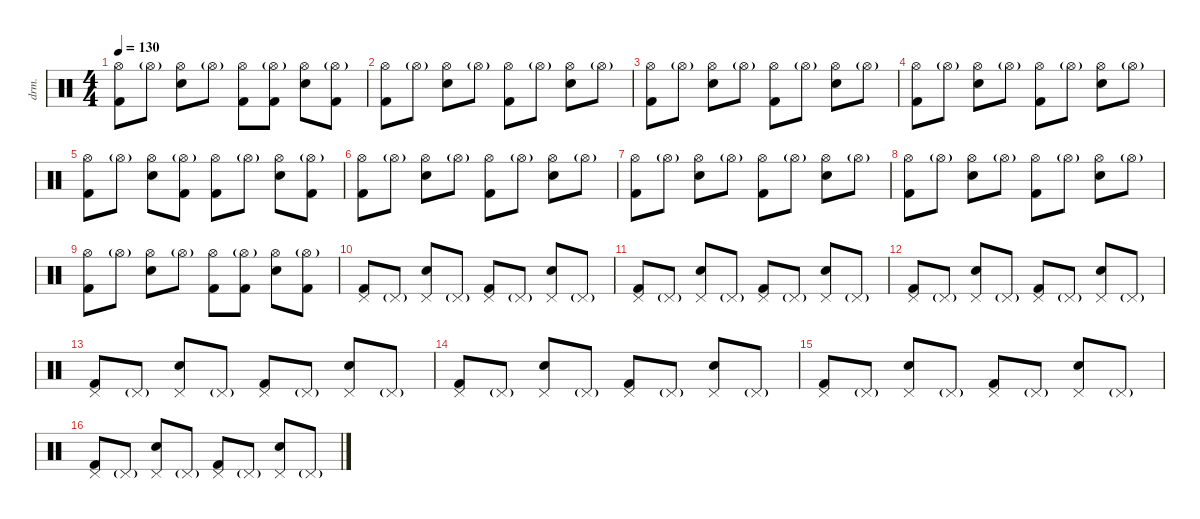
\defaultSystemsLayout 4
\hideDynamics
\bracketExtendMode nobrackets
\otherSystemsTrackNameOrientation horizontal
\track ("Percussion" "drm.") {instrument percussion}
\staff {score}
\articulation defaults
\ts (4 4)
\tempo 130
\clef neutral
\ks c
("Hi-Hat (open)" "Kick (hit) 2").8{dy f} "Hi-Hat (open)"{g}.8 ("Hi-Hat (open)" "Snare (hit) 2").8 "Hi-Hat (open)"{g}.8 ("Hi-Hat (open)" "Kick (hit) 2").8 ("Hi-Hat (open)"{g} "Kick (hit) 2").8 ("Hi-Hat (open)" "Snare (hit) 2").8 ("Hi-Hat (open)"{g} "Kick (hit) 2").8 |
("Hi-Hat (open)" "Kick (hit) 2").8 "Hi-Hat (open)"{g}.8 ("Hi-Hat (open)" "Snare (hit) 2").8 "Hi-Hat (open)"{g}.8 ("Hi-Hat (open)" "Kick (hit) 2").8 "Hi-Hat (open)"{g}.8 ("Hi-Hat (open)" "Snare (hit) 2").8 "Hi-Hat (open)"{g}.8 |
("Hi-Hat (open)" "Kick (hit) 2").8 "Hi-Hat (open)"{g}.8 ("Hi-Hat (open)" "Snare (hit) 2").8 "Hi-Hat (open)"{g}.8 ("Hi-Hat (open)" "Kick (hit) 2").8 "Hi-Hat (open)"{g}.8 ("Hi-Hat (open)" "Snare (hit) 2").8 "Hi-Hat (open)"{g}.8 |
("Hi-Hat (open)" "Kick (hit) 2").8 "Hi-Hat (open)"{g}.8 ("Hi-Hat (open)" "Snare (hit) 2").8 "Hi-Hat (open)"{g}.8 ("Hi-Hat (open)" "Kick (hit) 2").8 "Hi-Hat (open)"{g}.8 ("Hi-Hat (open)" "Snare (hit) 2").8 "Hi-Hat (open)"{g}.8 |
("Hi-Hat (open)" "Kick (hit) 2").8 "Hi-Hat (open)"{g}.8 ("Hi-Hat (open)" "Snare (hit) 2").8 ("Hi-Hat (open)"{g} "Kick (hit) 2").8 ("Hi-Hat (open)" "Kick (hit) 2").8 "Hi-Hat (open)"{g}.8 ("Hi-Hat (open)" "Snare (hit) 2").8 ("Hi-Hat (open)"{g} "Kick (hit) 2").8 |
("Hi-Hat (open)" "Kick (hit) 2").8 "Hi-Hat (open)"{g}.8 ("Hi-Hat (open)" "Snare (hit) 2").8 "Hi-Hat (open)"{g}.8 ("Hi-Hat (open)" "Kick (hit) 2").8 "Hi-Hat (open)"{g}.8 ("Hi-Hat (open)" "Snare (hit) 2").8 "Hi-Hat (open)"{g}.8 |
("Hi-Hat (open)" "Kick (hit) 2").8 "Hi-Hat (open)"{g}.8 ("Hi-Hat (open)" "Snare (hit) 2").8 "Hi-Hat (open)"{g}.8 ("Hi-Hat (open)" "Kick (hit) 2").8 "Hi-Hat (open)"{g}.8 ("Hi-Hat (open)" "Snare (hit) 2").8 "Hi-Hat (open)"{g}.8 |
("Hi-Hat (open)" "Kick (hit) 2").8 "Hi-Hat (open)"{g}.8 ("Hi-Hat (open)" "Snare (hit) 2").8 "Hi-Hat (open)"{g}.8 ("Hi-Hat (open)" "Kick (hit) 2").8 "Hi-Hat (open)"{g}.8 ("Hi-Hat (open)" "Snare (hit) 2").8 "Hi-Hat (open)"{g}.8 |
("Hi-Hat (open)" "Kick (hit) 2").8 "Hi-Hat (open)"{g}.8 ("Hi-Hat (open)" "Snare (hit) 2").8 "Hi-Hat (open)"{g}.8 ("Hi-Hat (open)" "Kick (hit) 2").8 ("Hi-Hat (open)"{g} "Kick (hit) 2").8 ("Hi-Hat (open)" "Snare (hit) 2").8 ("Hi-Hat (open)"{g} "Kick (hit) 2").8 |
("Pedal Hi-Hat (hit)" "Kick (hit) 2").8 "Pedal Hi-Hat (hit)"{g}.8 ("Pedal Hi-Hat (hit)" "Snare (hit) 2").8 "Pedal Hi-Hat (hit)"{g}.8 ("Pedal Hi-Hat (hit)" "Kick (hit) 2").8 "Pedal Hi-Hat (hit)"{g}.8 ("Pedal Hi-Hat (hit)" "Snare (hit) 2").8 "Pedal Hi-Hat (hit)"{g}.8 |
("Pedal Hi-Hat (hit)" "Kick (hit) 2").8 "Pedal Hi-Hat (hit)"{g}.8 ("Pedal Hi-Hat (hit)" "Snare (hit) 2").8 "Pedal Hi-Hat (hit)"{g}.8 ("Pedal Hi-Hat (hit)" "Kick (hit) 2").8 "Pedal Hi-Hat (hit)"{g}.8 ("Pedal Hi-Hat (hit)" "Snare (hit) 2").8 "Pedal Hi-Hat (hit)"{g}.8 |
("Pedal Hi-Hat (hit)" "Kick (hit) 2").8 "Pedal Hi-Hat (hit)"{g}.8 ("Pedal Hi-Hat (hit)" "Snare (hit) 2").8 "Pedal Hi-Hat (hit)"{g}.8 ("Pedal Hi-Hat (hit)" "Kick (hit) 2").8 "Pedal Hi-Hat (hit)"{g}.8 ("Pedal Hi-Hat (hit)" "Snare (hit) 2").8 "Pedal Hi-Hat (hit)"{g}.8 |
("Pedal Hi-Hat (hit)" "Kick (hit) 2").8 "Pedal Hi-Hat (hit)"{g}.8 ("Pedal Hi-Hat (hit)" "Snare (hit) 2").8 "Pedal Hi-Hat (hit)"{g}.8 ("Pedal Hi-Hat (hit)" "Kick (hit) 2").8 "Pedal Hi-Hat (hit)"{g}.8 ("Pedal Hi-Hat (hit)" "Snare (hit) 2").8 "Pedal Hi-Hat (hit)"{g}.8 |
("Pedal Hi-Hat (hit)" "Kick (hit) 2").8 "Pedal Hi-Hat (hit)"{g}.8 ("Pedal Hi-Hat (hit)" "Snare (hit) 2").8 "Pedal Hi-Hat (hit)"{g}.8 ("Pedal Hi-Hat (hit)" "Kick (hit) 2").8 "Pedal Hi-Hat (hit)"{g}.8 ("Pedal Hi-Hat (hit)" "Snare (hit) 2").8 "Pedal Hi-Hat (hit)"{g}.8 |
("Pedal Hi-Hat (hit)" "Kick (hit) 2").8 "Pedal Hi-Hat (hit)"{g}.8 ("Pedal Hi-Hat (hit)" "Snare (hit) 2").8 "Pedal Hi-Hat (hit)"{g}.8 ("Pedal Hi-Hat (hit)" "Kick (hit) 2").8 "Pedal Hi-Hat (hit)"{g}.8 ("Pedal Hi-Hat (hit)" "Snare (hit) 2").8 "Pedal Hi-Hat (hit)"{g}.8 |
("Pedal Hi-Hat (hit)" "Kick (hit) 2").8 "Pedal Hi-Hat (hit)"{g}.8 ("Pedal Hi-Hat (hit)" "Snare (hit) 2").8 "Pedal Hi-Hat (hit)"{g}.8 ("Pedal Hi-Hat (hit)" "Kick (hit) 2").8 "Pedal Hi-Hat (hit)"{g}.8 ("Pedal Hi-Hat (hit)" "Snare (hit) 2").8 "Pedal Hi-Hat (hit)"{g}.8
